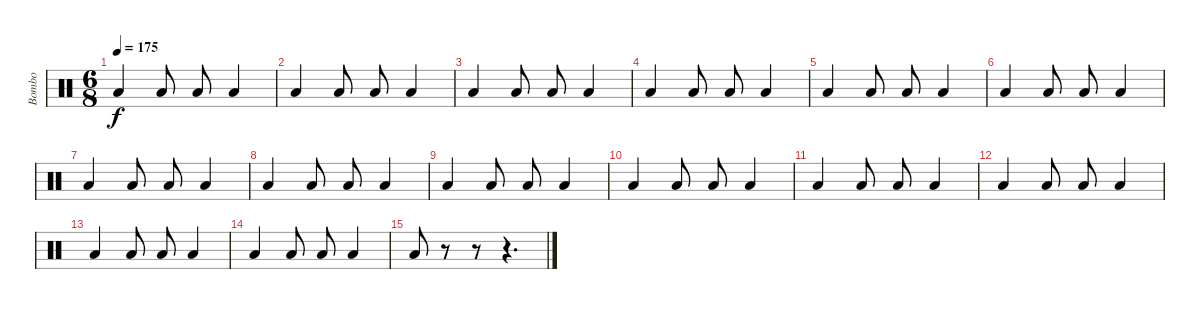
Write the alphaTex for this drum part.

\track ("Bombo" "Bombo") {instrument percussion}
\staff {score}
\articulation defaults
\ts (6 8)
\tempo 175
\clef neutral
\ks c "Low Floor Tom (hit)".4{dy f} "Low Floor Tom (hit)".8 "Low Floor Tom (hit)".8 "Low Floor Tom (hit)".4
|
"Low Floor Tom (hit)".4 "Low Floor Tom (hit)".8 "Low Floor Tom (hit)".8 "Low Floor Tom (hit)".4 |
"Low Floor Tom (hit)".4 "Low Floor Tom (hit)".8 "Low Floor Tom (hit)".8 "Low Floor Tom (hit)".4 |
"Low Floor Tom (hit)".4 "Low Floor Tom (hit)".8 "Low Floor Tom (hit)".8 "Low Floor Tom (hit)".4 |
"Low Floor Tom (hit)".4 "Low Floor Tom (hit)".8 "Low Floor Tom (hit)".8 "Low Floor Tom (hit)".4 |
"Low Floor Tom (hit)".4 "Low Floor Tom (hit)".8 "Low Floor Tom (hit)".8 "Low Floor Tom (hit)".4 |
"Low Floor Tom (hit)".4 "Low Floor Tom (hit)".8 "Low Floor Tom (hit)".8 "Low Floor Tom (hit)".4 |
"Low Floor Tom (hit)".4 "Low Floor Tom (hit)".8 "Low Floor Tom (hit)".8 "Low Floor Tom (hit)".4 |
"Low Floor Tom (hit)".4 "Low Floor Tom (hit)".8 "Low Floor Tom (hit)".8 "Low Floor Tom (hit)".4 |
"Low Floor Tom (hit)".4 "Low Floor Tom (hit)".8 "Low Floor Tom (hit)".8 "Low Floor Tom (hit)".4 |
"Low Floor Tom (hit)".4 "Low Floor Tom (hit)".8 "Low Floor Tom (hit)".8 "Low Floor Tom (hit)".4 |
"Low Floor Tom (hit)".4 "Low Floor Tom (hit)".8 "Low Floor Tom (hit)".8 "Low Floor Tom (hit)".4 |
"Low Floor Tom (hit)".4 "Low Floor Tom (hit)".8 "Low Floor Tom (hit)".8 "Low Floor Tom (hit)".4 |
"Low Floor Tom (hit)".4 "Low Floor Tom (hit)".8 "Low Floor Tom (hit)".8 "Low Floor Tom (hit)".4 |
"Low Floor Tom (hit)".8 r.8 r.8 r.4{d}
